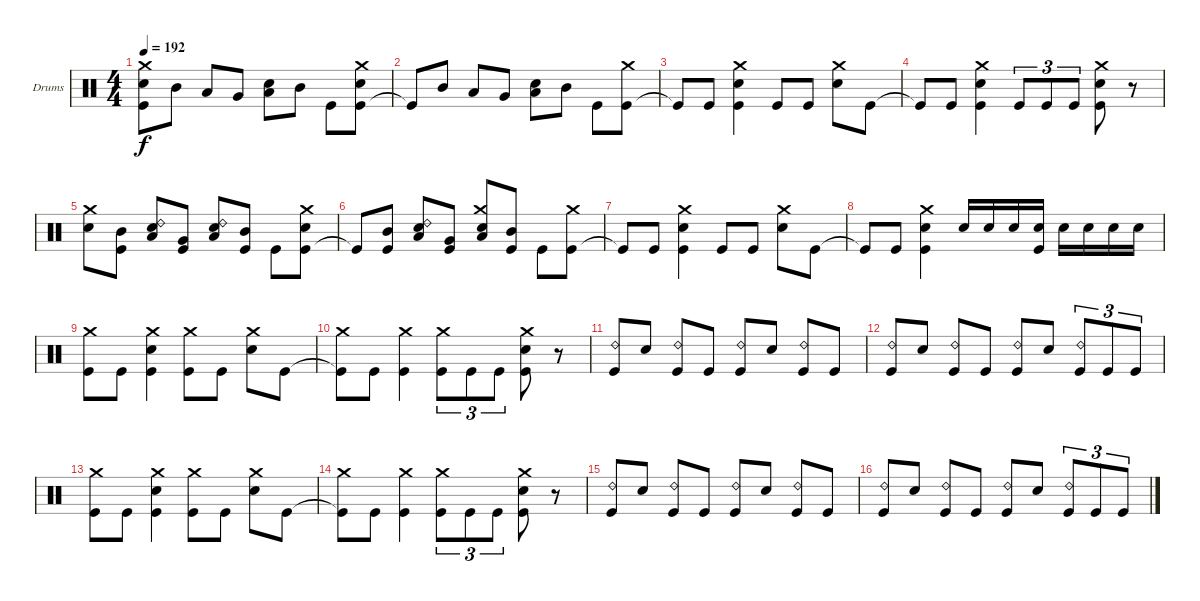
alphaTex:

\defaultSystemsLayout 4
\bracketExtendMode groupsimilarinstruments
\firstSystemTrackNameOrientation horizontal
\otherSystemsTrackNameOrientation horizontal
\track ("Drumkit" "Drums") {instrument percussion}
\staff {score}
\articulation defaults
\ts (4 4)
\tempo 192
\clef neutral
\ks c
("Kick (hit)" "Snare (hit) 2" "Crash medium (hit)").8{dy f} "Mid Tom (hit)".8 "Low Tom (hit)".8 "Very Low Tom (hit)".8 ("Snare (hit) 2" "Low Tom (hit)").8 "Mid Tom (hit)".8 "Kick (hit)".8 ("Kick (hit)" "Snare (hit) 2" "Crash medium (hit)").8 |
"Kick (hit)"{t}.8 "Mid Tom (hit)".8 "Low Tom (hit)".8 "Very Low Tom (hit)".8 ("Low Tom (hit)" "Snare (hit) 2").8 "Mid Tom (hit)".8 "Kick (hit)".8 ("Kick (hit)" "Crash medium (hit)").8 |
"Kick (hit)"{t}.8 "Kick (hit)".8 ("Kick (hit)" "Snare (hit) 2" "Crash medium (hit)").4 "Kick (hit)".8 "Kick (hit)".8 ("Snare (hit) 2" "Crash medium (hit)").8 "Kick (hit)".8 |
"Kick (hit)"{t}.8 "Kick (hit)".8 ("Kick (hit)" "Snare (hit) 2" "Crash medium (hit)").4 "Kick (hit)".8{tu (3 2)} "Kick (hit)".8{tu (3 2)} "Kick (hit)".8{tu (3 2)} ("Kick (hit)" "Snare (hit) 2" "Crash medium (hit)").8 r.8 |
("Snare (hit) 2" "Crash medium (hit)").8 ("Mid Tom (hit)" "Kick (hit)").8 ("Low Tom (hit)" "Snare (hit) 2" "Ride (bell) 2").8 ("Very Low Tom (hit)" "Kick (hit)").8 ("Low Tom (hit)" "Snare (hit) 2" "Ride (bell) 2").8 ("Mid Tom (hit)" "Kick (hit)").8 "Kick (hit)".8 ("Kick (hit)" "Snare (hit) 2" "Crash medium (hit)").8 |
"Kick (hit)"{t}.8 ("Kick (hit)" "Mid Tom (hit)").8 ("Snare (hit) 2" "Low Tom (hit)" "Ride (bell) 2").8 ("Very Low Tom (hit)" "Kick (hit)").8 ("Low Tom (hit)" "Snare (hit) 2" "Crash medium (hit)").8 ("Mid Tom (hit)" "Kick (hit)").8 "Kick (hit)".8 ("Kick (hit)" "Crash medium (hit)").8 |
"Kick (hit)"{t}.8 "Kick (hit)".8 ("Kick (hit)" "Snare (hit) 2" "Crash medium (hit)").4 "Kick (hit)".8 "Kick (hit)".8 ("Snare (hit) 2" "Crash medium (hit)").8 "Kick (hit)".8 |
"Kick (hit)"{t}.8 "Kick (hit)".8 ("Kick (hit)" "Snare (hit) 2" "Crash medium (hit)").4 "Snare (hit) 2".16 "Snare (hit) 2".16 "Snare (hit) 2".16 ("Snare (hit) 2" "Kick (hit)").16 "Snare (hit) 2".16 "Snare (hit) 2".16 "Snare (hit) 2".16 "Snare (hit) 2".16 |
("Kick (hit)" "Crash medium (hit)").8 "Kick (hit)".8 ("Kick (hit)" "Snare (hit) 2" "Crash medium (hit)").4 ("Crash medium (hit)" "Kick (hit)").8 "Kick (hit)".8 ("Snare (hit) 2" "Crash medium (hit)").8 "Kick (hit)".8 |
("Kick (hit)"{t} "Crash medium (hit)").8 "Kick (hit)".8 ("Kick (hit)" "Crash medium (hit)").4 ("Crash medium (hit)" "Kick (hit)").8{tu (3 2)} "Kick (hit)".8{tu (3 2)} "Kick (hit)".8{tu (3 2)} ("Kick (hit)" "Snare (hit) 2" "Crash medium (hit)").8 r.8 |
("Kick (hit)" "Ride (bell) 2").8 "Snare (hit) 2".8 ("Kick (hit)" "Ride (bell) 2").8 "Kick (hit)".8 ("Kick (hit)" "Ride (bell) 2").8 "Snare (hit) 2".8 ("Kick (hit)" "Ride (bell) 2").8 "Kick (hit)".8 |
("Kick (hit)" "Ride (bell) 2").8 "Snare (hit) 2".8 ("Kick (hit)" "Ride (bell) 2").8 "Kick (hit)".8 ("Kick (hit)" "Ride (bell) 2").8 "Snare (hit) 2".8 ("Kick (hit)" "Ride (bell) 2").8{tu (3 2)} "Kick (hit)".8{tu (3 2)} "Kick (hit)".8{tu (3 2)} |
("Kick (hit)" "Crash medium (hit)").8 "Kick (hit)".8 ("Kick (hit)" "Snare (hit) 2" "Crash medium (hit)").4 ("Crash medium (hit)" "Kick (hit)").8 "Kick (hit)".8 ("Snare (hit) 2" "Crash medium (hit)").8 "Kick (hit)".8 |
("Kick (hit)"{t} "Crash medium (hit)").8 "Kick (hit)".8 ("Kick (hit)" "Crash medium (hit)").4 ("Crash medium (hit)" "Kick (hit)").8{tu (3 2)} "Kick (hit)".8{tu (3 2)} "Kick (hit)".8{tu (3 2)} ("Kick (hit)" "Snare (hit) 2" "Crash medium (hit)").8 r.8 |
("Kick (hit)" "Ride (bell) 2").8 "Snare (hit) 2".8 ("Kick (hit)" "Ride (bell) 2").8 "Kick (hit)".8 ("Kick (hit)" "Ride (bell) 2").8 "Snare (hit) 2".8 ("Kick (hit)" "Ride (bell) 2").8 "Kick (hit)".8 |
("Kick (hit)" "Ride (bell) 2").8 "Snare (hit) 2".8 ("Kick (hit)" "Ride (bell) 2").8 "Kick (hit)".8 ("Kick (hit)" "Ride (bell) 2").8 "Snare (hit) 2".8 ("Kick (hit)" "Ride (bell) 2").8{tu (3 2)} "Kick (hit)".8{tu (3 2)} "Kick (hit)".8{tu (3 2)}
